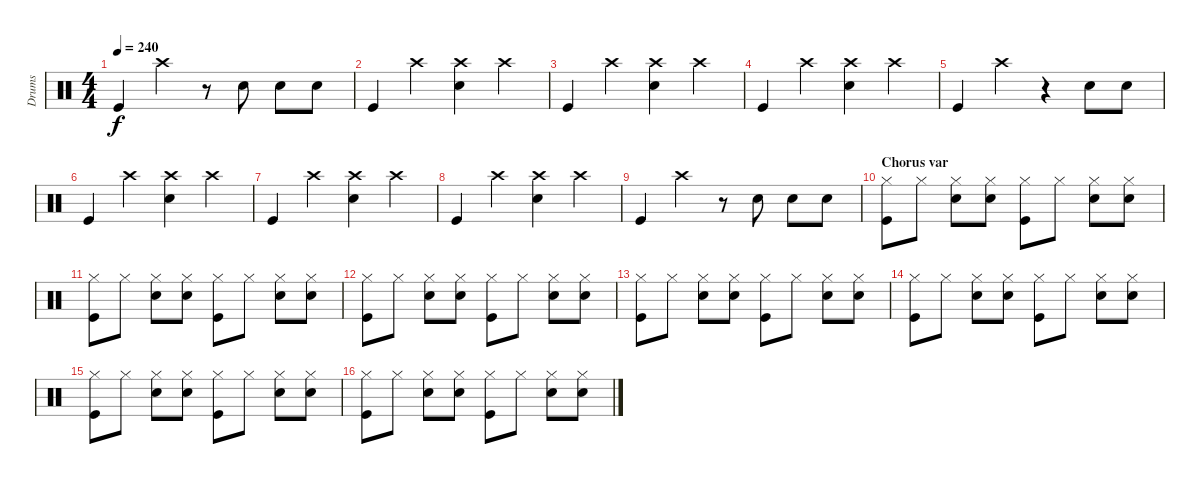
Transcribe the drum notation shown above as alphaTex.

\track ("Drums" "Drums") {instrument percussion}
\staff {score}
\articulation defaults
\ts (4 4)
\tempo 240
\clef neutral
\ks c "Kick (hit)".4{dy f} "Crash high (hit)".4
r.8 "Snare (hit) 2".8 "Snare (hit) 2".8 "Snare (hit) 2".8 |
"Kick (hit)".4 "Crash high (hit)".4 ("Snare (hit) 2" "Crash high (hit)").4 "Crash high (hit)".4 |
"Kick (hit)".4 "Crash high (hit)".4 ("Snare (hit) 2" "Crash high (hit)").4 "Crash high (hit)".4 |
"Kick (hit)".4 "Crash high (hit)".4 ("Snare (hit) 2" "Crash high (hit)").4 "Crash high (hit)".4 |
"Kick (hit)".4 "Crash high (hit)".4 r.4 "Snare (hit) 2".8 "Snare (hit) 2".8 |
"Kick (hit)".4 "Crash high (hit)".4 ("Snare (hit) 2" "Crash high (hit)").4 "Crash high (hit)".4 |
"Kick (hit)".4 "Crash high (hit)".4 ("Snare (hit) 2" "Crash high (hit)").4 "Crash high (hit)".4 |
"Kick (hit)".4 "Crash high (hit)".4 ("Snare (hit) 2" "Crash high (hit)").4 "Crash high (hit)".4 |
"Kick (hit)".4 "Crash high (hit)".4 r.8 "Snare (hit) 2".8 "Snare (hit) 2".8 "Snare (hit) 2".8 |
\section ("" "Chorus var")
("Kick (hit)" "Hi-Hat (closed)").8 "Hi-Hat (closed)".8 ("Snare (hit) 2" "Hi-Hat (closed)").8 ("Snare (hit) 2" "Hi-Hat (closed)").8 ("Kick (hit)" "Hi-Hat (closed)").8 "Hi-Hat (closed)".8 ("Snare (hit) 2" "Hi-Hat (closed)").8 ("Snare (hit) 2" "Hi-Hat (closed)").8 |
("Kick (hit)" "Hi-Hat (closed)").8 "Hi-Hat (closed)".8 ("Snare (hit) 2" "Hi-Hat (closed)").8 ("Snare (hit) 2" "Hi-Hat (closed)").8 ("Kick (hit)" "Hi-Hat (closed)").8 "Hi-Hat (closed)".8 ("Snare (hit) 2" "Hi-Hat (closed)").8 ("Snare (hit) 2" "Hi-Hat (closed)").8 |
("Kick (hit)" "Hi-Hat (closed)").8 "Hi-Hat (closed)".8 ("Snare (hit) 2" "Hi-Hat (closed)").8 ("Snare (hit) 2" "Hi-Hat (closed)").8 ("Kick (hit)" "Hi-Hat (closed)").8 "Hi-Hat (closed)".8 ("Snare (hit) 2" "Hi-Hat (closed)").8 ("Snare (hit) 2" "Hi-Hat (closed)").8 |
("Kick (hit)" "Hi-Hat (closed)").8 "Hi-Hat (closed)".8 ("Snare (hit) 2" "Hi-Hat (closed)").8 ("Snare (hit) 2" "Hi-Hat (closed)").8 ("Kick (hit)" "Hi-Hat (closed)").8 "Hi-Hat (closed)".8 ("Snare (hit) 2" "Hi-Hat (closed)").8 ("Snare (hit) 2" "Hi-Hat (closed)").8 |
("Kick (hit)" "Hi-Hat (closed)").8 "Hi-Hat (closed)".8 ("Snare (hit) 2" "Hi-Hat (closed)").8 ("Snare (hit) 2" "Hi-Hat (closed)").8 ("Kick (hit)" "Hi-Hat (closed)").8 "Hi-Hat (closed)".8 ("Snare (hit) 2" "Hi-Hat (closed)").8 ("Snare (hit) 2" "Hi-Hat (closed)").8 |
("Kick (hit)" "Hi-Hat (closed)").8 "Hi-Hat (closed)".8 ("Snare (hit) 2" "Hi-Hat (closed)").8 ("Snare (hit) 2" "Hi-Hat (closed)").8 ("Kick (hit)" "Hi-Hat (closed)").8 "Hi-Hat (closed)".8 ("Snare (hit) 2" "Hi-Hat (closed)").8 ("Snare (hit) 2" "Hi-Hat (closed)").8 |
("Kick (hit)" "Hi-Hat (closed)").8 "Hi-Hat (closed)".8 ("Snare (hit) 2" "Hi-Hat (closed)").8 ("Snare (hit) 2" "Hi-Hat (closed)").8 ("Kick (hit)" "Hi-Hat (closed)").8 "Hi-Hat (closed)".8 ("Snare (hit) 2" "Hi-Hat (closed)").8 ("Snare (hit) 2" "Hi-Hat (closed)").8
